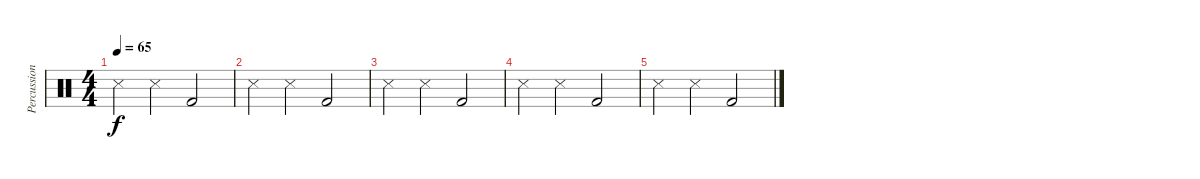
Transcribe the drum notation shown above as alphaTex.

\track ("Percussion" "Percussion") {instrument percussion}
\staff {score}
\articulation defaults
\ts (4 4)
\tempo 65
\clef neutral
\ks c "Snare (side stick) 3".4{dy f} "Snare (side stick) 3".4 "Kick (hit) 2".2
|
"Snare (side stick) 3".4 "Snare (side stick) 3".4 "Kick (hit) 2".2 |
"Snare (side stick) 3".4 "Snare (side stick) 3".4 "Kick (hit) 2".2 |
"Snare (side stick) 3".4 "Snare (side stick) 3".4 "Kick (hit) 2".2 |
"Snare (side stick) 3".4 "Snare (side stick) 3".4 "Kick (hit) 2".2
